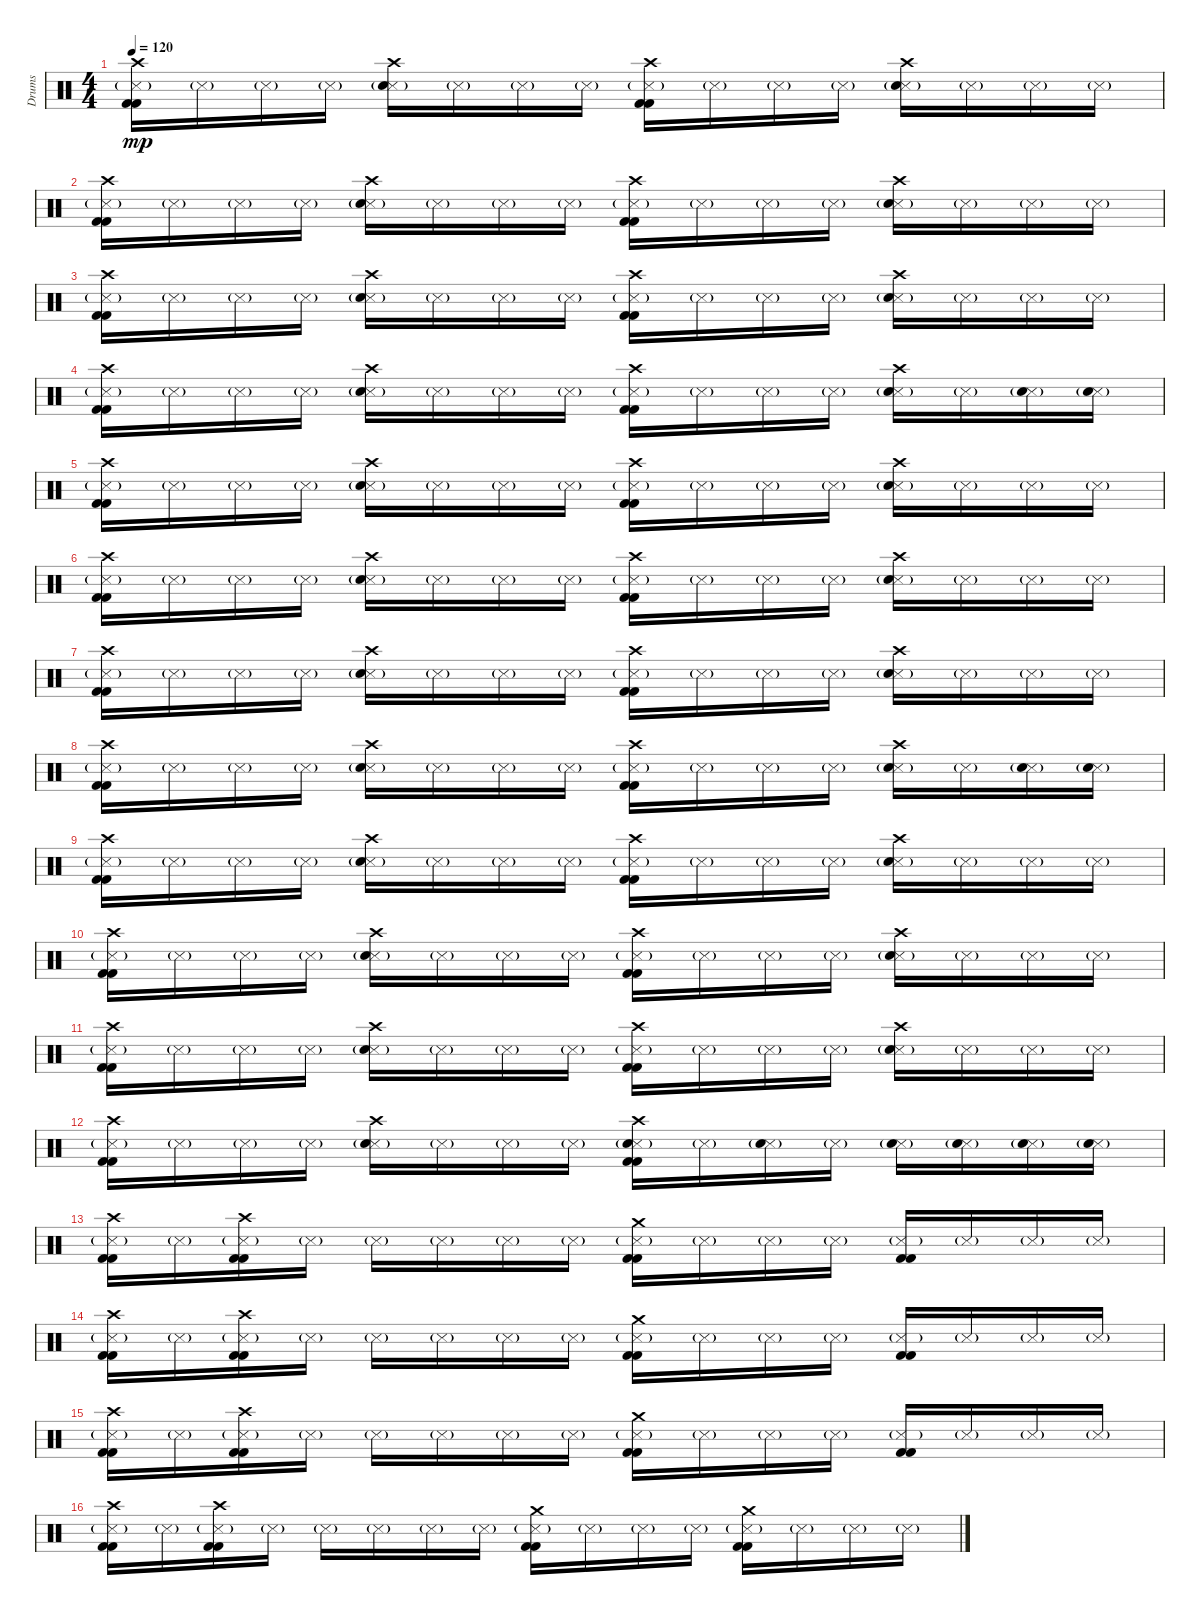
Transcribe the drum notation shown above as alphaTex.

\track ("Drums" "Drums") {instrument percussion}
\staff {score}
\articulation defaults
\ts (4 4)
\tempo 120
\clef neutral
\ks c
("Crash high (hit)" "Snare (side stick) 3"{g} "Kick (hit) 2" "Kick (hit) 2").16{dy mp} "Snare (side stick) 3"{g}.16 "Snare (side stick) 3"{g}.16 "Snare (side stick) 3"{g}.16 ("Crash high (hit)" "Snare (side stick) 3"{g} "Electric Snare (hit)").16 "Snare (side stick) 3"{g}.16 "Snare (side stick) 3"{g}.16 "Snare (side stick) 3"{g}.16 ("Crash high (hit)" "Snare (side stick) 3"{g} "Kick (hit) 2" "Kick (hit) 2").16 "Snare (side stick) 3"{g}.16 "Snare (side stick) 3"{g}.16 "Snare (side stick) 3"{g}.16 ("Crash high (hit)" "Snare (side stick) 3"{g} "Electric Snare (hit)").16 "Snare (side stick) 3"{g}.16 "Snare (side stick) 3"{g}.16 "Snare (side stick) 3"{g}.16 |
("Crash high (hit)" "Snare (side stick) 3"{g} "Kick (hit) 2" "Kick (hit) 2").16 "Snare (side stick) 3"{g}.16 "Snare (side stick) 3"{g}.16 "Snare (side stick) 3"{g}.16 ("Crash high (hit)" "Snare (side stick) 3"{g} "Electric Snare (hit)").16 "Snare (side stick) 3"{g}.16 "Snare (side stick) 3"{g}.16 "Snare (side stick) 3"{g}.16 ("Crash high (hit)" "Snare (side stick) 3"{g} "Kick (hit) 2" "Kick (hit) 2").16 "Snare (side stick) 3"{g}.16 "Snare (side stick) 3"{g}.16 "Snare (side stick) 3"{g}.16 ("Crash high (hit)" "Snare (side stick) 3"{g} "Electric Snare (hit)").16 "Snare (side stick) 3"{g}.16 "Snare (side stick) 3"{g}.16 "Snare (side stick) 3"{g}.16 |
("Crash high (hit)" "Snare (side stick) 3"{g} "Kick (hit) 2" "Kick (hit) 2").16 "Snare (side stick) 3"{g}.16 "Snare (side stick) 3"{g}.16 "Snare (side stick) 3"{g}.16 ("Crash high (hit)" "Snare (side stick) 3"{g} "Electric Snare (hit)").16 "Snare (side stick) 3"{g}.16 "Snare (side stick) 3"{g}.16 "Snare (side stick) 3"{g}.16 ("Crash high (hit)" "Snare (side stick) 3"{g} "Kick (hit) 2" "Kick (hit) 2").16 "Snare (side stick) 3"{g}.16 "Snare (side stick) 3"{g}.16 "Snare (side stick) 3"{g}.16 ("Crash high (hit)" "Snare (side stick) 3"{g} "Electric Snare (hit)").16 "Snare (side stick) 3"{g}.16 "Snare (side stick) 3"{g}.16 "Snare (side stick) 3"{g}.16 |
("Crash high (hit)" "Snare (side stick) 3"{g} "Kick (hit) 2" "Kick (hit) 2").16 "Snare (side stick) 3"{g}.16 "Snare (side stick) 3"{g}.16 "Snare (side stick) 3"{g}.16 ("Crash high (hit)" "Snare (side stick) 3"{g} "Electric Snare (hit)").16 "Snare (side stick) 3"{g}.16 "Snare (side stick) 3"{g}.16 "Snare (side stick) 3"{g}.16 ("Crash high (hit)" "Snare (side stick) 3"{g} "Kick (hit) 2" "Kick (hit) 2").16 "Snare (side stick) 3"{g}.16 "Snare (side stick) 3"{g}.16 "Snare (side stick) 3"{g}.16 ("Crash high (hit)" "Snare (side stick) 3"{g} "Electric Snare (hit)").16 "Snare (side stick) 3"{g}.16 ("Snare (side stick) 3"{g} "Electric Snare (hit)").16 ("Snare (side stick) 3"{g} "Electric Snare (hit)").16 |
("Crash high (hit)" "Snare (side stick) 3"{g} "Kick (hit) 2" "Kick (hit) 2").16 "Snare (side stick) 3"{g}.16 "Snare (side stick) 3"{g}.16 "Snare (side stick) 3"{g}.16 ("Crash high (hit)" "Snare (side stick) 3"{g} "Electric Snare (hit)").16 "Snare (side stick) 3"{g}.16 "Snare (side stick) 3"{g}.16 "Snare (side stick) 3"{g}.16 ("Crash high (hit)" "Snare (side stick) 3"{g} "Kick (hit) 2" "Kick (hit) 2").16 "Snare (side stick) 3"{g}.16 "Snare (side stick) 3"{g}.16 "Snare (side stick) 3"{g}.16 ("Crash high (hit)" "Snare (side stick) 3"{g} "Electric Snare (hit)").16 "Snare (side stick) 3"{g}.16 "Snare (side stick) 3"{g}.16 "Snare (side stick) 3"{g}.16 |
("Crash high (hit)" "Snare (side stick) 3"{g} "Kick (hit) 2" "Kick (hit) 2").16 "Snare (side stick) 3"{g}.16 "Snare (side stick) 3"{g}.16 "Snare (side stick) 3"{g}.16 ("Crash high (hit)" "Snare (side stick) 3"{g} "Electric Snare (hit)").16 "Snare (side stick) 3"{g}.16 "Snare (side stick) 3"{g}.16 "Snare (side stick) 3"{g}.16 ("Crash high (hit)" "Snare (side stick) 3"{g} "Kick (hit) 2" "Kick (hit) 2").16 "Snare (side stick) 3"{g}.16 "Snare (side stick) 3"{g}.16 "Snare (side stick) 3"{g}.16 ("Crash high (hit)" "Snare (side stick) 3"{g} "Electric Snare (hit)").16 "Snare (side stick) 3"{g}.16 "Snare (side stick) 3"{g}.16 "Snare (side stick) 3"{g}.16 |
("Crash high (hit)" "Snare (side stick) 3"{g} "Kick (hit) 2" "Kick (hit) 2").16 "Snare (side stick) 3"{g}.16 "Snare (side stick) 3"{g}.16 "Snare (side stick) 3"{g}.16 ("Crash high (hit)" "Snare (side stick) 3"{g} "Electric Snare (hit)").16 "Snare (side stick) 3"{g}.16 "Snare (side stick) 3"{g}.16 "Snare (side stick) 3"{g}.16 ("Crash high (hit)" "Snare (side stick) 3"{g} "Kick (hit) 2" "Kick (hit) 2").16 "Snare (side stick) 3"{g}.16 "Snare (side stick) 3"{g}.16 "Snare (side stick) 3"{g}.16 ("Crash high (hit)" "Snare (side stick) 3"{g} "Electric Snare (hit)").16 "Snare (side stick) 3"{g}.16 "Snare (side stick) 3"{g}.16 "Snare (side stick) 3"{g}.16 |
("Crash high (hit)" "Snare (side stick) 3"{g} "Kick (hit) 2" "Kick (hit) 2").16 "Snare (side stick) 3"{g}.16 "Snare (side stick) 3"{g}.16 "Snare (side stick) 3"{g}.16 ("Crash high (hit)" "Snare (side stick) 3"{g} "Electric Snare (hit)").16 "Snare (side stick) 3"{g}.16 "Snare (side stick) 3"{g}.16 "Snare (side stick) 3"{g}.16 ("Crash high (hit)" "Snare (side stick) 3"{g} "Kick (hit) 2" "Kick (hit) 2").16 "Snare (side stick) 3"{g}.16 "Snare (side stick) 3"{g}.16 "Snare (side stick) 3"{g}.16 ("Crash high (hit)" "Snare (side stick) 3"{g} "Electric Snare (hit)").16 "Snare (side stick) 3"{g}.16 ("Snare (side stick) 3"{g} "Electric Snare (hit)").16 ("Snare (side stick) 3"{g} "Electric Snare (hit)").16 |
("Crash high (hit)" "Snare (side stick) 3"{g} "Kick (hit) 2" "Kick (hit) 2").16 "Snare (side stick) 3"{g}.16 "Snare (side stick) 3"{g}.16 "Snare (side stick) 3"{g}.16 ("Crash high (hit)" "Snare (side stick) 3"{g} "Electric Snare (hit)").16 "Snare (side stick) 3"{g}.16 "Snare (side stick) 3"{g}.16 "Snare (side stick) 3"{g}.16 ("Crash high (hit)" "Snare (side stick) 3"{g} "Kick (hit) 2" "Kick (hit) 2").16 "Snare (side stick) 3"{g}.16 "Snare (side stick) 3"{g}.16 "Snare (side stick) 3"{g}.16 ("Crash high (hit)" "Snare (side stick) 3"{g} "Electric Snare (hit)").16 "Snare (side stick) 3"{g}.16 "Snare (side stick) 3"{g}.16 "Snare (side stick) 3"{g}.16 |
("Crash high (hit)" "Snare (side stick) 3"{g} "Kick (hit) 2" "Kick (hit) 2").16 "Snare (side stick) 3"{g}.16 "Snare (side stick) 3"{g}.16 "Snare (side stick) 3"{g}.16 ("Crash high (hit)" "Snare (side stick) 3"{g} "Electric Snare (hit)").16 "Snare (side stick) 3"{g}.16 "Snare (side stick) 3"{g}.16 "Snare (side stick) 3"{g}.16 ("Crash high (hit)" "Snare (side stick) 3"{g} "Kick (hit) 2" "Kick (hit) 2").16 "Snare (side stick) 3"{g}.16 "Snare (side stick) 3"{g}.16 "Snare (side stick) 3"{g}.16 ("Crash high (hit)" "Snare (side stick) 3"{g} "Electric Snare (hit)").16 "Snare (side stick) 3"{g}.16 "Snare (side stick) 3"{g}.16 "Snare (side stick) 3"{g}.16 |
("Crash high (hit)" "Snare (side stick) 3"{g} "Kick (hit) 2" "Kick (hit) 2").16 "Snare (side stick) 3"{g}.16 "Snare (side stick) 3"{g}.16 "Snare (side stick) 3"{g}.16 ("Crash high (hit)" "Snare (side stick) 3"{g} "Electric Snare (hit)").16 "Snare (side stick) 3"{g}.16 "Snare (side stick) 3"{g}.16 "Snare (side stick) 3"{g}.16 ("Crash high (hit)" "Snare (side stick) 3"{g} "Kick (hit) 2" "Kick (hit) 2").16 "Snare (side stick) 3"{g}.16 "Snare (side stick) 3"{g}.16 "Snare (side stick) 3"{g}.16 ("Crash high (hit)" "Snare (side stick) 3"{g} "Electric Snare (hit)").16 "Snare (side stick) 3"{g}.16 "Snare (side stick) 3"{g}.16 "Snare (side stick) 3"{g}.16 |
("Crash high (hit)" "Snare (side stick) 3"{g} "Kick (hit) 2" "Kick (hit) 2").16 "Snare (side stick) 3"{g}.16 "Snare (side stick) 3"{g}.16 "Snare (side stick) 3"{g}.16 ("Crash high (hit)" "Snare (side stick) 3"{g} "Electric Snare (hit)").16 "Snare (side stick) 3"{g}.16 "Snare (side stick) 3"{g}.16 "Snare (side stick) 3"{g}.16 ("Crash high (hit)" "Snare (side stick) 3"{g} "Electric Snare (hit)" "Kick (hit) 2" "Kick (hit) 2").16 "Snare (side stick) 3"{g}.16 ("Snare (side stick) 3"{g} "Electric Snare (hit)").16 "Snare (side stick) 3"{g}.16 ("Snare (side stick) 3"{g} "Electric Snare (hit)").16 ("Snare (side stick) 3"{g} "Electric Snare (hit)").16 ("Snare (side stick) 3"{g} "Electric Snare (hit)").16 ("Snare (side stick) 3"{g} "Electric Snare (hit)").16 |
("Crash high (hit)" "Snare (side stick) 3"{g} "Kick (hit) 2" "Kick (hit) 2").16 "Snare (side stick) 3"{g}.16 ("Crash high (hit)" "Snare (side stick) 3"{g} "Kick (hit) 2" "Kick (hit) 2").16 "Snare (side stick) 3"{g}.16 "Snare (side stick) 3"{g}.16 "Snare (side stick) 3"{g}.16 "Snare (side stick) 3"{g}.16 "Snare (side stick) 3"{g}.16 ("Crash medium (hit)" "Snare (side stick) 3"{g} "Kick (hit) 2" "Kick (hit) 2").16 "Snare (side stick) 3"{g}.16 "Snare (side stick) 3"{g}.16 "Snare (side stick) 3"{g}.16 ("Snare (side stick) 3"{g} "Kick (hit) 2" "Kick (hit) 2").16 "Snare (side stick) 3"{g}.16 "Snare (side stick) 3"{g}.16 "Snare (side stick) 3"{g}.16 |
("Crash high (hit)" "Snare (side stick) 3"{g} "Kick (hit) 2" "Kick (hit) 2").16 "Snare (side stick) 3"{g}.16 ("Crash high (hit)" "Snare (side stick) 3"{g} "Kick (hit) 2" "Kick (hit) 2").16 "Snare (side stick) 3"{g}.16 "Snare (side stick) 3"{g}.16 "Snare (side stick) 3"{g}.16 "Snare (side stick) 3"{g}.16 "Snare (side stick) 3"{g}.16 ("Crash medium (hit)" "Snare (side stick) 3"{g} "Kick (hit) 2" "Kick (hit) 2").16 "Snare (side stick) 3"{g}.16 "Snare (side stick) 3"{g}.16 "Snare (side stick) 3"{g}.16 ("Snare (side stick) 3"{g} "Kick (hit) 2" "Kick (hit) 2").16 "Snare (side stick) 3"{g}.16 "Snare (side stick) 3"{g}.16 "Snare (side stick) 3"{g}.16 |
("Crash high (hit)" "Snare (side stick) 3"{g} "Kick (hit) 2" "Kick (hit) 2").16 "Snare (side stick) 3"{g}.16 ("Crash high (hit)" "Snare (side stick) 3"{g} "Kick (hit) 2" "Kick (hit) 2").16 "Snare (side stick) 3"{g}.16 "Snare (side stick) 3"{g}.16 "Snare (side stick) 3"{g}.16 "Snare (side stick) 3"{g}.16 "Snare (side stick) 3"{g}.16 ("Crash medium (hit)" "Snare (side stick) 3"{g} "Kick (hit) 2" "Kick (hit) 2").16 "Snare (side stick) 3"{g}.16 "Snare (side stick) 3"{g}.16 "Snare (side stick) 3"{g}.16 ("Snare (side stick) 3"{g} "Kick (hit) 2" "Kick (hit) 2").16 "Snare (side stick) 3"{g}.16 "Snare (side stick) 3"{g}.16 "Snare (side stick) 3"{g}.16 |
("Crash high (hit)" "Snare (side stick) 3"{g} "Kick (hit) 2" "Kick (hit) 2").16 "Snare (side stick) 3"{g}.16 ("Crash high (hit)" "Snare (side stick) 3"{g} "Kick (hit) 2" "Kick (hit) 2").16 "Snare (side stick) 3"{g}.16 "Snare (side stick) 3"{g}.16 "Snare (side stick) 3"{g}.16 "Snare (side stick) 3"{g}.16 "Snare (side stick) 3"{g}.16 ("Crash medium (hit)" "Snare (side stick) 3"{g} "Kick (hit) 2" "Kick (hit) 2").16 "Snare (side stick) 3"{g}.16 "Snare (side stick) 3"{g}.16 "Snare (side stick) 3"{g}.16 ("Crash medium (hit)" "Snare (side stick) 3"{g} "Kick (hit) 2" "Kick (hit) 2").16 "Snare (side stick) 3"{g}.16 "Snare (side stick) 3"{g}.16 "Snare (side stick) 3"{g}.16
